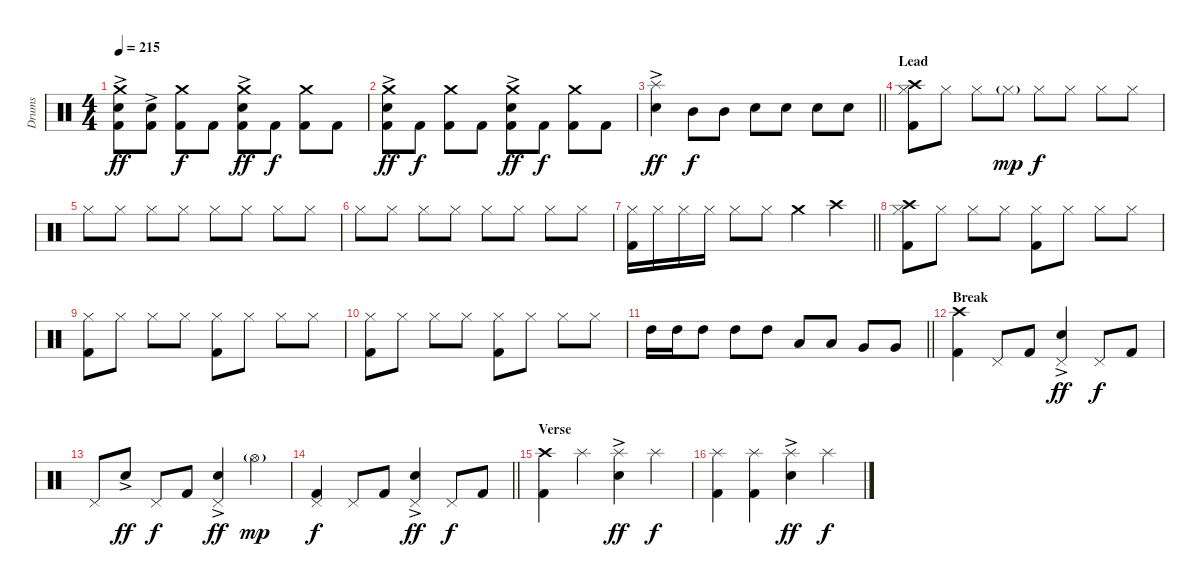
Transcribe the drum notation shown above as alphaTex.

\track ("Drums" "Drums") {instrument percussion}
\staff {score}
\articulation defaults
\ts (4 4)
\tempo 215
\clef neutral
\ks c
("Kick (hit) 2" "Snare (hit) 2"{ac} "Crash medium (hit)").8{dy ff} ("Kick (hit) 2" "Snare (hit) 2"{ac}).8 ("Kick (hit) 2" "Crash medium (hit)").8{dy f} "Kick (hit) 2".8 ("Kick (hit) 2" "Snare (hit) 2"{ac} "Crash medium (hit)").8{dy ff} "Kick (hit) 2".8{dy f} ("Kick (hit) 2" "Crash medium (hit)").8 "Kick (hit) 2".8 |
("Kick (hit) 2" "Snare (hit) 2"{ac} "Crash medium (hit)").8{dy ff} "Kick (hit) 2".8{dy f} ("Kick (hit) 2" "Crash medium (hit)").8 "Kick (hit) 2".8 ("Kick (hit) 2" "Snare (hit) 2"{ac} "Crash medium (hit)").8{dy ff} "Kick (hit) 2".8{dy f} ("Kick (hit) 2" "Crash medium (hit)").8 "Kick (hit) 2".8 |
\barLineRight lightlight
("Snare (hit) 2"{ac} "Splash (hit)").4{dy ff} "Mid Tom (hit)".8{dy f} "Mid Tom (hit)".8 "Snare (hit) 2".8 "Snare (hit) 2".8 "Snare (hit) 2".8 "Snare (hit) 2".8 |
\section ("" "Lead")
("Kick (hit) 2" "Hi-Hat (closed)" "Crash high (hit)").8 "Hi-Hat (closed)".8 "Hi-Hat (closed)".8 "Hi-Hat (closed)"{g}.8{dy mp} "Hi-Hat (closed)".8{dy f} "Hi-Hat (closed)".8 "Hi-Hat (closed)".8 "Hi-Hat (closed)".8 |
"Hi-Hat (closed)".8 "Hi-Hat (closed)".8 "Hi-Hat (closed)".8 "Hi-Hat (closed)".8 "Hi-Hat (closed)".8 "Hi-Hat (closed)".8 "Hi-Hat (closed)".8 "Hi-Hat (closed)".8 |
"Hi-Hat (closed)".8 "Hi-Hat (closed)".8 "Hi-Hat (closed)".8 "Hi-Hat (closed)".8 "Hi-Hat (closed)".8 "Hi-Hat (closed)".8 "Hi-Hat (closed)".8 "Hi-Hat (closed)".8 |
\barLineRight lightlight
("Kick (hit) 2" "Hi-Hat (closed)").16 "Hi-Hat (closed)".16 "Hi-Hat (closed)".16 "Hi-Hat (closed)".16 "Hi-Hat (closed)".8 "Hi-Hat (closed)".8 "Crash medium (hit)".4 "Crash high (hit)".4 |
\section ("" "")
("Kick (hit) 2" "Hi-Hat (closed)" "Crash high (hit)").8 "Hi-Hat (closed)".8 "Hi-Hat (closed)".8 "Hi-Hat (closed)".8 ("Kick (hit) 2" "Hi-Hat (closed)").8 "Hi-Hat (closed)".8 "Hi-Hat (closed)".8 "Hi-Hat (closed)".8 |
("Kick (hit) 2" "Hi-Hat (closed)").8 "Hi-Hat (closed)".8 "Hi-Hat (closed)".8 "Hi-Hat (closed)".8 ("Kick (hit) 2" "Hi-Hat (closed)").8 "Hi-Hat (closed)".8 "Hi-Hat (closed)".8 "Hi-Hat (closed)".8 |
("Kick (hit) 2" "Hi-Hat (closed)").8 "Hi-Hat (closed)".8 "Hi-Hat (closed)".8 "Hi-Hat (closed)".8 ("Kick (hit) 2" "Hi-Hat (closed)").8 "Hi-Hat (closed)".8 "Hi-Hat (closed)".8 "Hi-Hat (closed)".8 |
\barLineRight lightlight "High Tom (hit)".16 "High Tom (hit)".16 "High Tom (hit)".8 "High Tom (hit)".8 "High Tom (hit)".8 "Low Tom (hit)".8 "Low Tom (hit)".8 "Very Low Tom (hit)".8 "Very Low Tom (hit)".8
|
\section ("" "Break")
("Kick (hit) 2" "Crash high (hit)").4 "Pedal Hi-Hat (hit)".8 "Kick (hit) 2".8 ("Snare (hit) 2"{ac} "Pedal Hi-Hat (hit)").4{dy ff} "Pedal Hi-Hat (hit)".8{dy f} "Kick (hit) 2".8 |
"Pedal Hi-Hat (hit)".8 "Snare (hit) 2"{ac}.8{dy ff} "Pedal Hi-Hat (hit)".8{dy f} "Kick (hit) 2".8 ("Snare (hit) 2"{ac} "Pedal Hi-Hat (hit)").4{dy ff} "Hi-Hat (open)"{g}.4{dy mp} |
\barLineRight lightlight
("Kick (hit) 2" "Pedal Hi-Hat (hit)").4{dy f} "Pedal Hi-Hat (hit)".8 "Kick (hit) 2".8 ("Snare (hit) 2"{ac} "Pedal Hi-Hat (hit)").4{dy ff} "Pedal Hi-Hat (hit)".8{dy f} "Kick (hit) 2".8 |
\section ("" "Verse")
("Kick (hit) 2" "Crash high (hit)").4 "Splash (hit)".4 ("Snare (hit) 2"{ac} "Splash (hit)").4{dy ff} "Splash (hit)".4{dy f} |
("Kick (hit) 2" "Splash (hit)").4 ("Kick (hit) 2" "Splash (hit)").4 ("Snare (hit) 2"{ac} "Splash (hit)").4{dy ff} "Splash (hit)".4{dy f}
